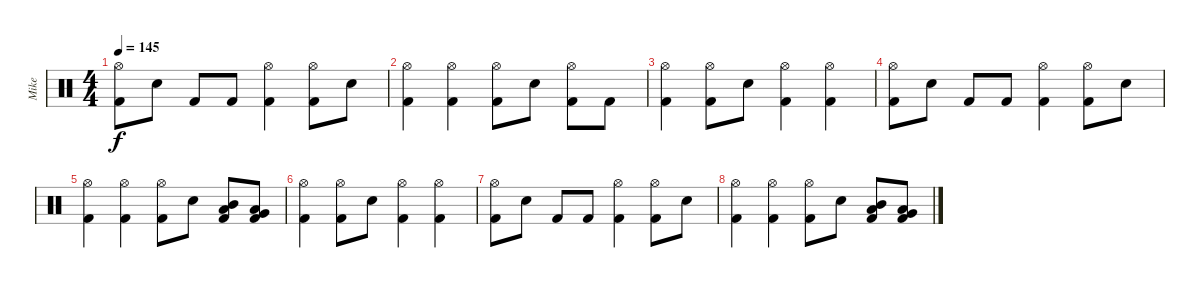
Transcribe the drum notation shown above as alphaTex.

\track ("Mike" "Mike") {instrument percussion}
\staff {score}
\articulation defaults
\ts (4 4)
\tempo 145
\clef neutral
\ks c
("Hi-Hat (open)" "Kick (hit) 2").8{dy f} "Snare (hit) 2".8 "Kick (hit) 2".8 "Kick (hit) 2".8 ("Hi-Hat (open)" "Kick (hit) 2").4 ("Hi-Hat (open)" "Kick (hit) 2").8 "Snare (hit) 2".8 |
("Hi-Hat (open)" "Kick (hit) 2").4 ("Hi-Hat (open)" "Kick (hit) 2").4 ("Hi-Hat (open)" "Kick (hit) 2").8 "Snare (hit) 2".8 ("Hi-Hat (open)" "Kick (hit) 2").8 "Kick (hit) 2".8 |
("Hi-Hat (open)" "Kick (hit) 2").4 ("Hi-Hat (open)" "Kick (hit) 2").8 "Snare (hit) 2".8 ("Hi-Hat (open)" "Kick (hit) 2").4 ("Hi-Hat (open)" "Kick (hit) 2").4 |
("Hi-Hat (open)" "Kick (hit) 2").8 "Snare (hit) 2".8 "Kick (hit) 2".8 "Kick (hit) 2".8 ("Hi-Hat (open)" "Kick (hit) 2").4 ("Hi-Hat (open)" "Kick (hit) 2").8 "Snare (hit) 2".8 |
("Hi-Hat (open)" "Kick (hit) 2").4 ("Hi-Hat (open)" "Kick (hit) 2").4 ("Hi-Hat (open)" "Kick (hit) 2").8 "Snare (hit) 2".8 ("Mid Tom (hit)" "Low Tom (hit)" "Kick (hit) 2").8 ("Low Tom (hit)" "Very Low Tom (hit)" "Kick (hit) 2").8 |
("Hi-Hat (open)" "Kick (hit) 2").4 ("Hi-Hat (open)" "Kick (hit) 2").8 "Snare (hit) 2".8 ("Hi-Hat (open)" "Kick (hit) 2").4 ("Hi-Hat (open)" "Kick (hit) 2").4 |
("Hi-Hat (open)" "Kick (hit) 2").8 "Snare (hit) 2".8 "Kick (hit) 2".8 "Kick (hit) 2".8 ("Hi-Hat (open)" "Kick (hit) 2").4 ("Hi-Hat (open)" "Kick (hit) 2").8 "Snare (hit) 2".8 |
("Hi-Hat (open)" "Kick (hit) 2").4 ("Hi-Hat (open)" "Kick (hit) 2").4 ("Hi-Hat (open)" "Kick (hit) 2").8 "Snare (hit) 2".8 ("Mid Tom (hit)" "Low Tom (hit)" "Kick (hit) 2").8 ("Low Tom (hit)" "Very Low Tom (hit)" "Kick (hit) 2").8
